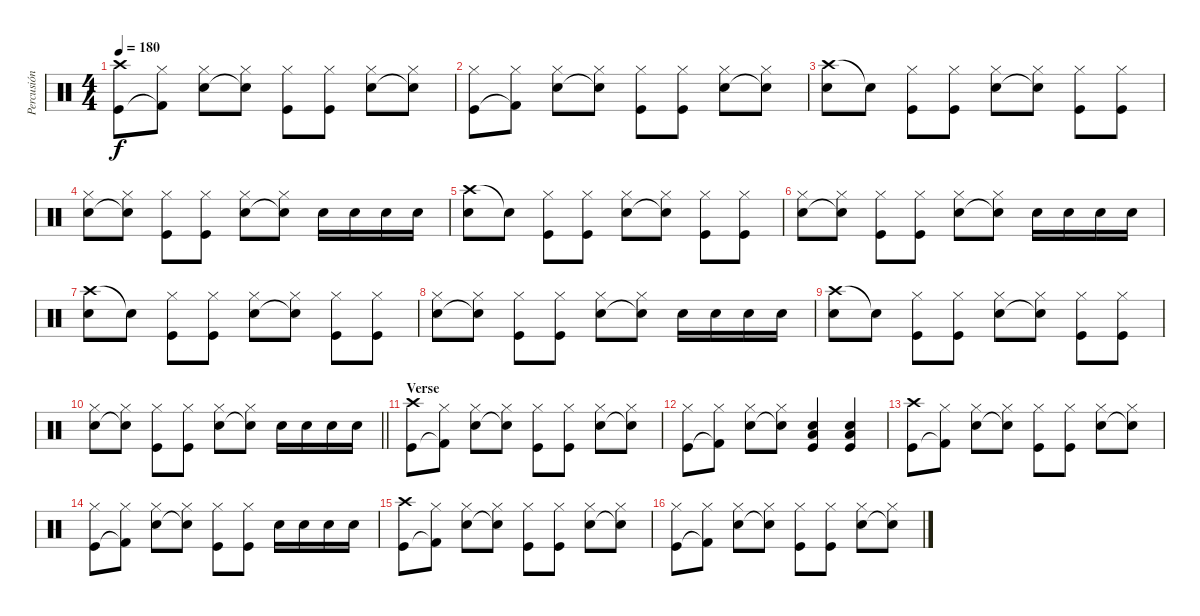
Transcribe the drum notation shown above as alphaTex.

\track ("Percusión" "Percusión") {instrument percussion}
\staff {score}
\articulation defaults
\ts (4 4)
\tempo 180
\clef neutral
\ks c
("Crash high (hit)" "Kick (hit)").8{dy f} ("Hi-Hat (closed)" "Kick (hit) 2"{t}).8 ("Hi-Hat (closed)" "Snare (hit) 2").8 ("Hi-Hat (closed)" "Snare (hit)"{t}).8 ("Hi-Hat (closed)" "Kick (hit)").8 ("Hi-Hat (closed)" "Kick (hit)").8 ("Hi-Hat (closed)" "Snare (hit) 2").8 ("Hi-Hat (closed)" "Snare (hit)"{t}).8 |
("Hi-Hat (closed)" "Kick (hit)").8 ("Hi-Hat (closed)" "Kick (hit) 2"{t}).8 ("Hi-Hat (closed)" "Snare (hit) 2").8 ("Hi-Hat (closed)" "Snare (hit)"{t}).8 ("Hi-Hat (closed)" "Kick (hit)").8 ("Hi-Hat (closed)" "Kick (hit)").8 ("Hi-Hat (closed)" "Snare (hit) 2").8 ("Hi-Hat (closed)" "Snare (hit)"{t}).8 |
("Crash high (hit)" "Snare (hit) 2").8 "Snare (hit)"{t}.8 ("Hi-Hat (closed)" "Kick (hit)").8 ("Hi-Hat (closed)" "Kick (hit)").8 ("Hi-Hat (closed)" "Snare (hit) 2").8 ("Hi-Hat (closed)" "Snare (hit)"{t}).8 ("Hi-Hat (closed)" "Kick (hit)").8 ("Hi-Hat (closed)" "Kick (hit)").8 |
("Hi-Hat (closed)" "Snare (hit) 2").8 ("Hi-Hat (closed)" "Snare (hit)"{t}).8 ("Hi-Hat (closed)" "Kick (hit)").8 ("Hi-Hat (closed)" "Kick (hit)").8 ("Hi-Hat (closed)" "Snare (hit) 2").8 ("Hi-Hat (closed)" "Snare (hit) 2"{t}).8 "Snare (hit) 2".16 "Snare (hit) 2".16 "Snare (hit) 2".16 "Snare (hit) 2".16 |
("Crash high (hit)" "Snare (hit) 2").8 "Snare (hit)"{t}.8 ("Hi-Hat (closed)" "Kick (hit)").8 ("Hi-Hat (closed)" "Kick (hit)").8 ("Hi-Hat (closed)" "Snare (hit) 2").8 ("Hi-Hat (closed)" "Snare (hit)"{t}).8 ("Hi-Hat (closed)" "Kick (hit)").8 ("Hi-Hat (closed)" "Kick (hit)").8 |
("Hi-Hat (closed)" "Snare (hit) 2").8 ("Hi-Hat (closed)" "Snare (hit)"{t}).8 ("Hi-Hat (closed)" "Kick (hit)").8 ("Hi-Hat (closed)" "Kick (hit)").8 ("Hi-Hat (closed)" "Snare (hit) 2").8 ("Hi-Hat (closed)" "Snare (hit) 2"{t}).8 "Snare (hit) 2".16 "Snare (hit) 2".16 "Snare (hit) 2".16 "Snare (hit) 2".16 |
("Crash high (hit)" "Snare (hit) 2").8 "Snare (hit)"{t}.8 ("Hi-Hat (closed)" "Kick (hit)").8 ("Hi-Hat (closed)" "Kick (hit)").8 ("Hi-Hat (closed)" "Snare (hit) 2").8 ("Hi-Hat (closed)" "Snare (hit)"{t}).8 ("Hi-Hat (closed)" "Kick (hit)").8 ("Hi-Hat (closed)" "Kick (hit)").8 |
("Hi-Hat (closed)" "Snare (hit) 2").8 ("Hi-Hat (closed)" "Snare (hit)"{t}).8 ("Hi-Hat (closed)" "Kick (hit)").8 ("Hi-Hat (closed)" "Kick (hit)").8 ("Hi-Hat (closed)" "Snare (hit) 2").8 ("Hi-Hat (closed)" "Snare (hit) 2"{t}).8 "Snare (hit) 2".16 "Snare (hit) 2".16 "Snare (hit) 2".16 "Snare (hit) 2".16 |
("Crash high (hit)" "Snare (hit) 2").8 "Snare (hit)"{t}.8 ("Hi-Hat (closed)" "Kick (hit)").8 ("Hi-Hat (closed)" "Kick (hit)").8 ("Hi-Hat (closed)" "Snare (hit) 2").8 ("Hi-Hat (closed)" "Snare (hit)"{t}).8 ("Hi-Hat (closed)" "Kick (hit)").8 ("Hi-Hat (closed)" "Kick (hit)").8 |
\barLineRight lightlight
("Hi-Hat (closed)" "Snare (hit) 2").8 ("Hi-Hat (closed)" "Snare (hit)"{t}).8 ("Hi-Hat (closed)" "Kick (hit)").8 ("Hi-Hat (closed)" "Kick (hit)").8 ("Hi-Hat (closed)" "Snare (hit) 2").8 ("Hi-Hat (closed)" "Snare (hit) 2"{t}).8 "Snare (hit) 2".16 "Snare (hit) 2".16 "Snare (hit) 2".16 "Snare (hit) 2".16 |
\section ("" "Verse")
("Crash high (hit)" "Kick (hit)").8 ("Hi-Hat (closed)" "Kick (hit) 2"{t}).8 ("Hi-Hat (closed)" "Snare (hit) 2").8 ("Hi-Hat (closed)" "Snare (hit)"{t}).8 ("Hi-Hat (closed)" "Kick (hit)").8 ("Hi-Hat (closed)" "Kick (hit)").8 ("Hi-Hat (closed)" "Snare (hit) 2").8 ("Hi-Hat (closed)" "Snare (hit)"{t}).8 |
("Hi-Hat (closed)" "Kick (hit)").8 ("Hi-Hat (closed)" "Kick (hit) 2"{t}).8 ("Hi-Hat (closed)" "Snare (hit) 2").8 ("Hi-Hat (closed)" "Snare (hit)"{t}).8 ("Low Floor Tom (hit)" "Snare (hit) 2" "Kick (hit)").4 ("Low Floor Tom (hit)" "Snare (hit) 2" "Kick (hit)").4 |
("Crash high (hit)" "Kick (hit)").8 ("Hi-Hat (closed)" "Kick (hit) 2"{t}).8 ("Hi-Hat (closed)" "Snare (hit) 2").8 ("Hi-Hat (closed)" "Snare (hit)"{t}).8 ("Hi-Hat (closed)" "Kick (hit)").8 ("Hi-Hat (closed)" "Kick (hit)").8 ("Hi-Hat (closed)" "Snare (hit) 2").8 ("Hi-Hat (closed)" "Snare (hit)"{t}).8 |
("Hi-Hat (closed)" "Kick (hit)").8 ("Hi-Hat (closed)" "Kick (hit) 2"{t}).8 ("Hi-Hat (closed)" "Snare (hit) 2").8 ("Hi-Hat (closed)" "Snare (hit)"{t}).8 ("Hi-Hat (closed)" "Kick (hit)").8 ("Hi-Hat (closed)" "Kick (hit)").8 "Snare (hit) 2".16 "Snare (hit) 2".16 "Snare (hit) 2".16 "Snare (hit) 2".16 |
("Crash high (hit)" "Kick (hit)").8 ("Hi-Hat (closed)" "Kick (hit) 2"{t}).8 ("Hi-Hat (closed)" "Snare (hit) 2").8 ("Hi-Hat (closed)" "Snare (hit)"{t}).8 ("Hi-Hat (closed)" "Kick (hit)").8 ("Hi-Hat (closed)" "Kick (hit)").8 ("Hi-Hat (closed)" "Snare (hit) 2").8 ("Hi-Hat (closed)" "Snare (hit)"{t}).8 |
("Hi-Hat (closed)" "Kick (hit)").8 ("Hi-Hat (closed)" "Kick (hit) 2"{t}).8 ("Hi-Hat (closed)" "Snare (hit) 2").8 ("Hi-Hat (closed)" "Snare (hit)"{t}).8 ("Hi-Hat (closed)" "Kick (hit)").8 ("Hi-Hat (closed)" "Kick (hit)").8 ("Hi-Hat (closed)" "Snare (hit) 2").8 ("Hi-Hat (closed)" "Snare (hit)"{t}).8
